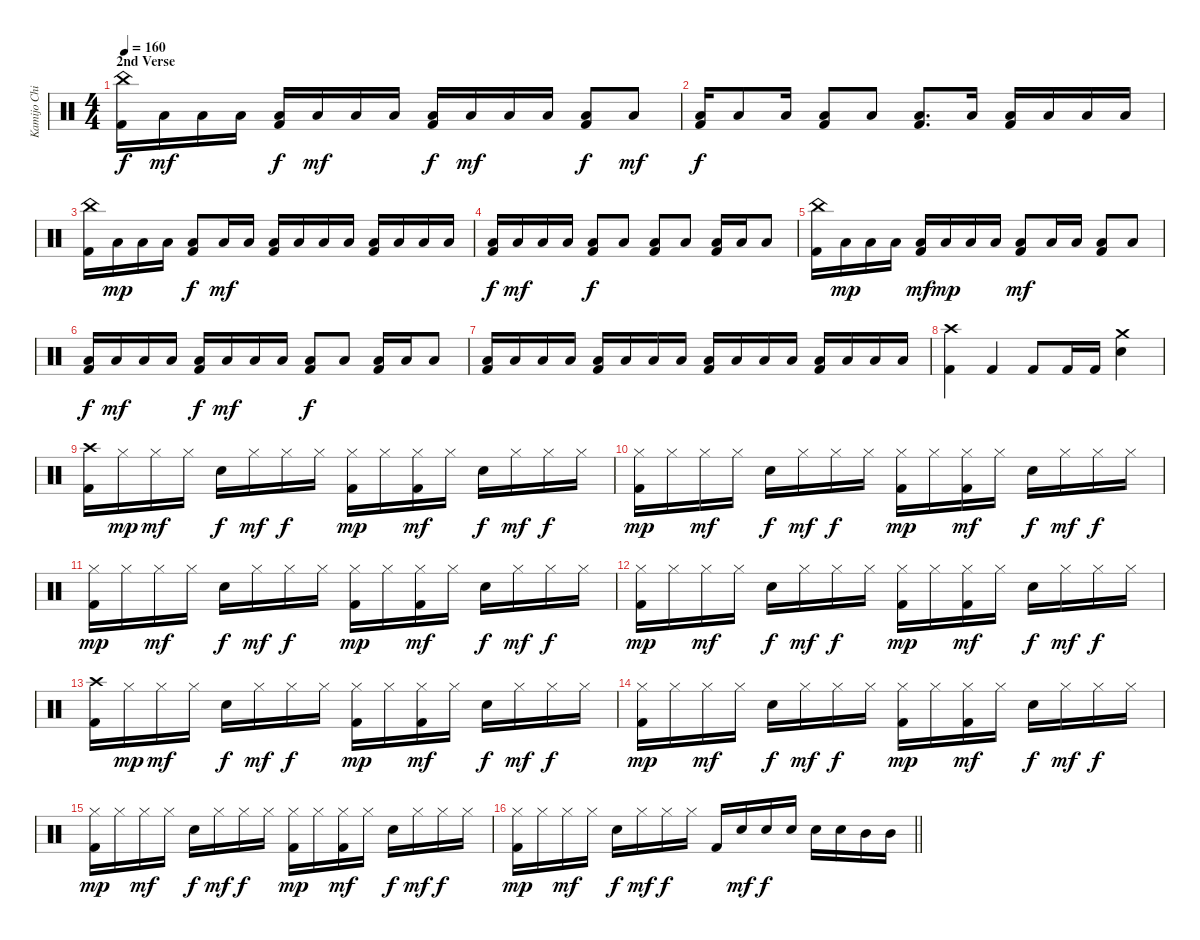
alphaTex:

\track ("Kamijo Chihiro" "Kamijo Chi") {instrument percussion}
\staff {score}
\articulation defaults
\ts (4 4)
\section ("" "2nd Verse")
\tempo 160
\clef neutral
\ks c
("China (hit)" "Kick (hit) 2").16{dy f} "Low Floor Tom (hit)".16{dy mf} "Low Floor Tom (hit)".16 "Low Floor Tom (hit)".16 ("Low Floor Tom (hit)" "Kick (hit) 2").16{dy f} "Low Floor Tom (hit)".16{dy mf} "Low Floor Tom (hit)".16 "Low Floor Tom (hit)".16 ("Low Floor Tom (hit)" "Kick (hit) 2").16{dy f} "Low Floor Tom (hit)".16{dy mf} "Low Floor Tom (hit)".16 "Low Floor Tom (hit)".16 ("Low Floor Tom (hit)" "Kick (hit) 2").8{dy f} "Low Floor Tom (hit)".8{dy mf} |
("Low Tom (hit)" "Kick (hit) 2").16{dy f} "Low Floor Tom (hit)".8 "Low Floor Tom (hit)".16 ("Low Tom (hit)" "Kick (hit) 2").8 "Low Floor Tom (hit)".8 ("Low Tom (hit)" "Kick (hit) 2").8{d} "Low Floor Tom (hit)".16 ("Low Tom (hit)" "Kick (hit) 2").16 "Low Tom (hit)".16 "Low Floor Tom (hit)".16 "Low Floor Tom (hit)".16 |
("China (hit)" "Kick (hit) 2").16 "Low Floor Tom (hit)".16{dy mp} "Low Floor Tom (hit)".16 "Low Floor Tom (hit)".16 ("Low Floor Tom (hit)" "Kick (hit) 2").8{dy f} "Low Floor Tom (hit)".16{dy mf} "Low Floor Tom (hit)".16 ("Low Tom (hit)" "Kick (hit) 2").16 "Low Tom (hit)".16 "Low Floor Tom (hit)".16 "Low Floor Tom (hit)".16 ("Low Tom (hit)" "Kick (hit) 2").16 "Low Tom (hit)".16 "Low Floor Tom (hit)".16 "Low Floor Tom (hit)".16 |
("Low Tom (hit)" "Kick (hit) 2").16{dy f} "Low Tom (hit)".16{dy mf} "Low Floor Tom (hit)".16 "Low Floor Tom (hit)".16 ("Low Tom (hit)" "Kick (hit) 2").8{dy f} "Low Floor Tom (hit)".8 ("Low Tom (hit)" "Kick (hit) 2").8 "Low Floor Tom (hit)".8 ("Low Tom (hit)" "Kick (hit) 2").16 "Low Tom (hit)".16 "Low Floor Tom (hit)".8 |
("China (hit)" "Kick (hit) 2").16 "Low Floor Tom (hit)".16{dy mp} "Low Floor Tom (hit)".16 "Low Floor Tom (hit)".16 ("Low Floor Tom (hit)" "Kick (hit) 2").16{dy mf} "Low Floor Tom (hit)".16{dy mp} "Low Floor Tom (hit)".16 "Low Floor Tom (hit)".16 ("Low Floor Tom (hit)" "Kick (hit) 2").8{dy mf} "Low Floor Tom (hit)".16 "Low Floor Tom (hit)".16 ("Low Floor Tom (hit)" "Kick (hit) 2").8 "Low Floor Tom (hit)".8 |
("Low Tom (hit)" "Kick (hit) 2").16{dy f} "Low Tom (hit)".16{dy mf} "Low Floor Tom (hit)".16 "Low Floor Tom (hit)".16 ("Low Tom (hit)" "Kick (hit) 2").16{dy f} "Low Tom (hit)".16{dy mf} "Low Floor Tom (hit)".16 "Low Floor Tom (hit)".16 ("Low Tom (hit)" "Kick (hit) 2").8{dy f} "Low Floor Tom (hit)".8 ("Low Tom (hit)" "Kick (hit) 2").16 "Low Tom (hit)".16 "Low Floor Tom (hit)".8 |
("Low Tom (hit)" "Kick (hit) 2").16 "Low Tom (hit)".16 "Low Floor Tom (hit)".16 "Low Floor Tom (hit)".16 ("Low Tom (hit)" "Kick (hit) 2").16 "Low Tom (hit)".16 "Low Floor Tom (hit)".16 "Low Floor Tom (hit)".16 ("Low Tom (hit)" "Kick (hit) 2").16 "Low Tom (hit)".16 "Low Floor Tom (hit)".16 "Low Floor Tom (hit)".16 ("Low Tom (hit)" "Kick (hit) 2").16 "Low Tom (hit)".16 "Low Floor Tom (hit)".16 "Low Floor Tom (hit)".16 |
("Crash high (hit)" "Kick (hit) 2").4 "Kick (hit) 2".4 "Kick (hit) 2".8 "Kick (hit) 2".16 "Kick (hit) 2".16 ("Crash medium (hit)" "Snare (hit) 2").4 |
("Crash high (hit)" "Kick (hit) 2").16 "Hi-Hat (closed)".16{dy mp} "Hi-Hat (closed)".16{dy mf} "Hi-Hat (closed)".16 "Snare (hit) 2".16{dy f} "Hi-Hat (closed)".16{dy mf} "Hi-Hat (closed)".16{dy f} "Hi-Hat (closed)".16 ("Hi-Hat (closed)" "Kick (hit) 2").16{dy mp} "Hi-Hat (closed)".16 ("Hi-Hat (closed)" "Kick (hit) 2").16{dy mf} "Hi-Hat (closed)".16 "Snare (hit) 2".16{dy f} "Hi-Hat (closed)".16{dy mf} "Hi-Hat (closed)".16{dy f} "Hi-Hat (closed)".16 |
("Hi-Hat (closed)" "Kick (hit) 2").16{dy mp} "Hi-Hat (closed)".16 "Hi-Hat (closed)".16{dy mf} "Hi-Hat (closed)".16 "Snare (hit) 2".16{dy f} "Hi-Hat (closed)".16{dy mf} "Hi-Hat (closed)".16{dy f} "Hi-Hat (closed)".16 ("Hi-Hat (closed)" "Kick (hit) 2").16{dy mp} "Hi-Hat (closed)".16 ("Hi-Hat (closed)" "Kick (hit) 2").16{dy mf} "Hi-Hat (closed)".16 "Snare (hit) 2".16{dy f} "Hi-Hat (closed)".16{dy mf} "Hi-Hat (closed)".16{dy f} "Hi-Hat (closed)".16 |
("Hi-Hat (closed)" "Kick (hit) 2").16{dy mp} "Hi-Hat (closed)".16 "Hi-Hat (closed)".16{dy mf} "Hi-Hat (closed)".16 "Snare (hit) 2".16{dy f} "Hi-Hat (closed)".16{dy mf} "Hi-Hat (closed)".16{dy f} "Hi-Hat (closed)".16 ("Hi-Hat (closed)" "Kick (hit) 2").16{dy mp} "Hi-Hat (closed)".16 ("Hi-Hat (closed)" "Kick (hit) 2").16{dy mf} "Hi-Hat (closed)".16 "Snare (hit) 2".16{dy f} "Hi-Hat (closed)".16{dy mf} "Hi-Hat (closed)".16{dy f} "Hi-Hat (closed)".16 |
("Hi-Hat (closed)" "Kick (hit) 2").16{dy mp} "Hi-Hat (closed)".16 "Hi-Hat (closed)".16{dy mf} "Hi-Hat (closed)".16 "Snare (hit) 2".16{dy f} "Hi-Hat (closed)".16{dy mf} "Hi-Hat (closed)".16{dy f} "Hi-Hat (closed)".16 ("Hi-Hat (closed)" "Kick (hit) 2").16{dy mp} "Hi-Hat (closed)".16 ("Hi-Hat (closed)" "Kick (hit) 2").16{dy mf} "Hi-Hat (closed)".16 "Snare (hit) 2".16{dy f} "Hi-Hat (closed)".16{dy mf} "Hi-Hat (closed)".16{dy f} "Hi-Hat (closed)".16 |
("Crash high (hit)" "Kick (hit) 2").16 "Hi-Hat (closed)".16{dy mp} "Hi-Hat (closed)".16{dy mf} "Hi-Hat (closed)".16 "Snare (hit) 2".16{dy f} "Hi-Hat (closed)".16{dy mf} "Hi-Hat (closed)".16{dy f} "Hi-Hat (closed)".16 ("Hi-Hat (closed)" "Kick (hit) 2").16{dy mp} "Hi-Hat (closed)".16 ("Hi-Hat (closed)" "Kick (hit) 2").16{dy mf} "Hi-Hat (closed)".16 "Snare (hit) 2".16{dy f} "Hi-Hat (closed)".16{dy mf} "Hi-Hat (closed)".16{dy f} "Hi-Hat (closed)".16 |
("Hi-Hat (closed)" "Kick (hit) 2").16{dy mp} "Hi-Hat (closed)".16 "Hi-Hat (closed)".16{dy mf} "Hi-Hat (closed)".16 "Snare (hit) 2".16{dy f} "Hi-Hat (closed)".16{dy mf} "Hi-Hat (closed)".16{dy f} "Hi-Hat (closed)".16 ("Hi-Hat (closed)" "Kick (hit) 2").16{dy mp} "Hi-Hat (closed)".16 ("Hi-Hat (closed)" "Kick (hit) 2").16{dy mf} "Hi-Hat (closed)".16 "Snare (hit) 2".16{dy f} "Hi-Hat (closed)".16{dy mf} "Hi-Hat (closed)".16{dy f} "Hi-Hat (closed)".16 |
("Hi-Hat (closed)" "Kick (hit) 2").16{dy mp} "Hi-Hat (closed)".16 "Hi-Hat (closed)".16{dy mf} "Hi-Hat (closed)".16 "Snare (hit) 2".16{dy f} "Hi-Hat (closed)".16{dy mf} "Hi-Hat (closed)".16{dy f} "Hi-Hat (closed)".16 ("Hi-Hat (closed)" "Kick (hit) 2").16{dy mp} "Hi-Hat (closed)".16 ("Hi-Hat (closed)" "Kick (hit) 2").16{dy mf} "Hi-Hat (closed)".16 "Snare (hit) 2".16{dy f} "Hi-Hat (closed)".16{dy mf} "Hi-Hat (closed)".16{dy f} "Hi-Hat (closed)".16 |
\barLineRight lightlight
("Hi-Hat (closed)" "Kick (hit) 2").16{dy mp} "Hi-Hat (closed)".16 "Hi-Hat (closed)".16{dy mf} "Hi-Hat (closed)".16 "Snare (hit) 2".16{dy f} "Hi-Hat (closed)".16{dy mf} "Hi-Hat (closed)".16{dy f} "Hi-Hat (closed)".16 "Kick (hit) 2".16 "Snare (hit) 2".16{dy mf} "Snare (hit) 2".16{dy f} "Snare (hit) 2".16 "Snare (hit) 2".16 "Snare (hit) 2".16 "Mid Tom (hit)".16 "Mid Tom (hit)".16
